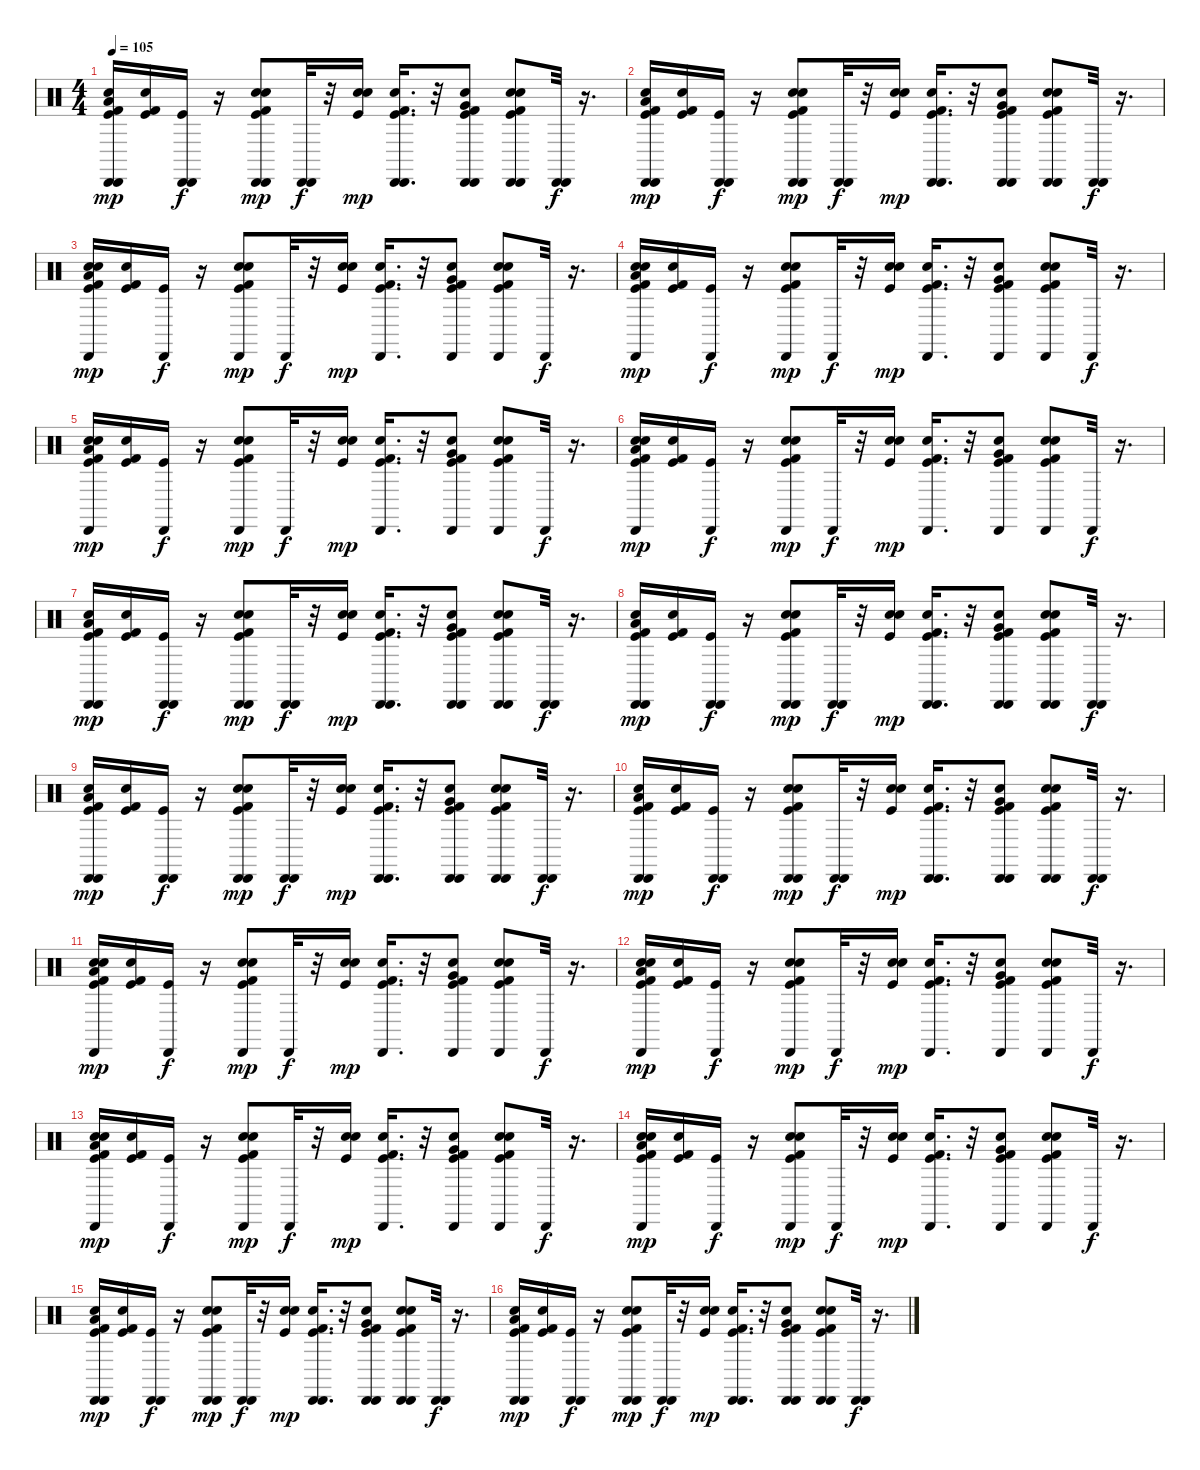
\track "" {instrument percussion}
\staff {score}
\articulation defaults
\ts (4 4)
\tempo 105
\clef neutral
\ks c
("Cabasa (hit)" "Kick (hit) 2" "Kick (hit)" "Cabasa (hit)" "Electric Snare (hit)" "Low Floor Tom (hit)").16{dy mp} ("Snare (hit) 2" "Kick (hit)" "Kick (hit) 2").16 ("Cabasa (hit)" "Cabasa (hit)" "Kick (hit)").16{dy f} r.16 ("Hand Clap (hit)" "Cabasa (hit)" "Cabasa (hit)" "Kick (hit) 2" "Kick (hit)" "Snare (hit) 2").8{dy mp} ("Cabasa (hit)" "Cabasa (hit)").32{dy f} r.32 ("Kick (hit)" "Electric Snare (hit)" "Snare (hit) 2").16{dy mp} ("Kick (hit)" "Snare (hit) 2" "Kick (hit) 2" "Cabasa (hit)" "Cabasa (hit)").16{d} r.32 ("Kick (hit) 2" "Snare (hit) 2" "Kick (hit)" "Cabasa (hit)" "Very Low Tom (hit)" "Cabasa (hit)").8 ("Kick (hit)" "Snare (hit) 2" "Cabasa (hit)" "Kick (hit) 2" "Hand Clap (hit)" "Cabasa (hit)").8 ("Cabasa (hit)" "Cabasa (hit)").32{dy f} r.16{d} |
("Kick (hit) 2" "Cabasa (hit)" "Kick (hit)" "Cabasa (hit)" "Low Floor Tom (hit)" "Electric Snare (hit)").16{dy mp} ("Kick (hit) 2" "Kick (hit)" "Snare (hit) 2").16 ("Kick (hit)" "Cabasa (hit)" "Cabasa (hit)").16{dy f} r.16 ("Snare (hit) 2" "Cabasa (hit)" "Kick (hit)" "Hand Clap (hit)" "Cabasa (hit)" "Kick (hit) 2").8{dy mp} ("Cabasa (hit)" "Cabasa (hit)").32{dy f} r.32 ("Electric Snare (hit)" "Kick (hit)" "Snare (hit) 2").16{dy mp} ("Cabasa (hit)" "Cabasa (hit)" "Snare (hit) 2" "Kick (hit)" "Kick (hit) 2").16{d} r.32 ("Snare (hit) 2" "Kick (hit)" "Cabasa (hit)" "Kick (hit) 2" "Very Low Tom (hit)" "Cabasa (hit)").8 ("Hand Clap (hit)" "Kick (hit)" "Kick (hit) 2" "Snare (hit) 2" "Cabasa (hit)" "Cabasa (hit)").8 ("Cabasa (hit)" "Cabasa (hit)").32{dy f} r.16{d} |
("Kick (hit) 2" "Kick (hit)" "Cabasa (hit)" "Electric Snare (hit)" "Low Floor Tom (hit)" "Snare (hit) 2").16{dy mp} ("Kick (hit) 2" "Snare (hit) 2" "Kick (hit)").16 ("Kick (hit)" "Cabasa (hit)").16{dy f} r.16 ("Hand Clap (hit)" "Cabasa (hit)" "Kick (hit) 2" "Kick (hit)" "Snare (hit) 2").8{dy mp} "Cabasa (hit)".32{dy f} r.32 ("Kick (hit)" "Snare (hit) 2" "Electric Snare (hit)").16{dy mp} ("Snare (hit) 2" "Kick (hit)" "Cabasa (hit)" "Kick (hit) 2").16{d} r.32 ("Kick (hit)" "Snare (hit) 2" "Kick (hit) 2" "Cabasa (hit)" "Very Low Tom (hit)").8 ("Snare (hit) 2" "Kick (hit)" "Hand Clap (hit)" "Cabasa (hit)" "Kick (hit) 2").8 "Cabasa (hit)".32{dy f} r.16{d} |
("Electric Snare (hit)" "Kick (hit) 2" "Kick (hit)" "Cabasa (hit)" "Low Floor Tom (hit)" "Snare (hit) 2").16{dy mp} ("Kick (hit) 2" "Kick (hit)" "Snare (hit) 2").16 ("Kick (hit)" "Cabasa (hit)").16{dy f} r.16 ("Hand Clap (hit)" "Snare (hit) 2" "Kick (hit)" "Cabasa (hit)" "Kick (hit) 2").8{dy mp} "Cabasa (hit)".32{dy f} r.32 ("Electric Snare (hit)" "Kick (hit)" "Snare (hit) 2").16{dy mp} ("Snare (hit) 2" "Kick (hit)" "Kick (hit) 2" "Cabasa (hit)").16{d} r.32 ("Very Low Tom (hit)" "Snare (hit) 2" "Kick (hit)" "Cabasa (hit)" "Kick (hit) 2").8 ("Hand Clap (hit)" "Kick (hit)" "Cabasa (hit)" "Snare (hit) 2" "Kick (hit) 2").8 "Cabasa (hit)".32{dy f} r.16{d} |
("Kick (hit) 2" "Kick (hit)" "Cabasa (hit)" "Electric Snare (hit)" "Low Floor Tom (hit)" "Snare (hit) 2").16{dy mp} ("Kick (hit) 2" "Snare (hit) 2" "Kick (hit)").16 ("Kick (hit)" "Cabasa (hit)").16{dy f} r.16 ("Hand Clap (hit)" "Cabasa (hit)" "Kick (hit) 2" "Kick (hit)" "Snare (hit) 2").8{dy mp} "Cabasa (hit)".32{dy f} r.32 ("Kick (hit)" "Snare (hit) 2" "Electric Snare (hit)").16{dy mp} ("Snare (hit) 2" "Kick (hit)" "Cabasa (hit)" "Kick (hit) 2").16{d} r.32 ("Kick (hit)" "Snare (hit) 2" "Kick (hit) 2" "Cabasa (hit)" "Very Low Tom (hit)").8 ("Snare (hit) 2" "Kick (hit)" "Hand Clap (hit)" "Cabasa (hit)" "Kick (hit) 2").8 "Cabasa (hit)".32{dy f} r.16{d} |
("Electric Snare (hit)" "Kick (hit) 2" "Kick (hit)" "Cabasa (hit)" "Low Floor Tom (hit)" "Snare (hit) 2").16{dy mp} ("Kick (hit) 2" "Kick (hit)" "Snare (hit) 2").16 ("Kick (hit)" "Cabasa (hit)").16{dy f} r.16 ("Hand Clap (hit)" "Snare (hit) 2" "Kick (hit)" "Cabasa (hit)" "Kick (hit) 2").8{dy mp} "Cabasa (hit)".32{dy f} r.32 ("Electric Snare (hit)" "Kick (hit)" "Snare (hit) 2").16{dy mp} ("Snare (hit) 2" "Kick (hit)" "Kick (hit) 2" "Cabasa (hit)").16{d} r.32 ("Very Low Tom (hit)" "Snare (hit) 2" "Kick (hit)" "Cabasa (hit)" "Kick (hit) 2").8 ("Hand Clap (hit)" "Kick (hit)" "Cabasa (hit)" "Snare (hit) 2" "Kick (hit) 2").8 "Cabasa (hit)".32{dy f} r.16{d} |
("Kick (hit) 2" "Kick (hit)" "Cabasa (hit)" "Electric Snare (hit)" "Low Floor Tom (hit)" "Cabasa (hit)").16{dy mp} ("Kick (hit) 2" "Kick (hit)" "Snare (hit) 2").16 ("Cabasa (hit)" "Kick (hit)" "Cabasa (hit)").16{dy f} r.16 ("Hand Clap (hit)" "Cabasa (hit)" "Snare (hit) 2" "Cabasa (hit)" "Kick (hit)" "Kick (hit) 2").8{dy mp} ("Cabasa (hit)" "Cabasa (hit)").32{dy f} r.32 ("Kick (hit)" "Snare (hit) 2" "Electric Snare (hit)").16{dy mp} ("Snare (hit) 2" "Kick (hit)" "Cabasa (hit)" "Cabasa (hit)" "Kick (hit) 2").16{d} r.32 ("Cabasa (hit)" "Very Low Tom (hit)" "Kick (hit)" "Snare (hit) 2" "Cabasa (hit)" "Kick (hit) 2").8 ("Kick (hit)" "Cabasa (hit)" "Hand Clap (hit)" "Snare (hit) 2" "Cabasa (hit)" "Kick (hit) 2").8 ("Cabasa (hit)" "Cabasa (hit)").32{dy f} r.16{d} |
("Cabasa (hit)" "Electric Snare (hit)" "Kick (hit) 2" "Kick (hit)" "Cabasa (hit)" "Low Floor Tom (hit)").16{dy mp} ("Kick (hit) 2" "Snare (hit) 2" "Kick (hit)").16 ("Cabasa (hit)" "Kick (hit)" "Cabasa (hit)").16{dy f} r.16 ("Hand Clap (hit)" "Snare (hit) 2" "Kick (hit)" "Cabasa (hit)" "Kick (hit) 2" "Cabasa (hit)").8{dy mp} ("Cabasa (hit)" "Cabasa (hit)").32{dy f} r.32 ("Snare (hit) 2" "Electric Snare (hit)" "Kick (hit)").16{dy mp} ("Kick (hit)" "Snare (hit) 2" "Cabasa (hit)" "Kick (hit) 2" "Cabasa (hit)").16{d} r.32 ("Very Low Tom (hit)" "Snare (hit) 2" "Cabasa (hit)" "Kick (hit) 2" "Kick (hit)" "Cabasa (hit)").8 ("Hand Clap (hit)" "Kick (hit)" "Kick (hit) 2" "Snare (hit) 2" "Cabasa (hit)" "Cabasa (hit)").8 ("Cabasa (hit)" "Cabasa (hit)").32{dy f} r.16{d} |
("Cabasa (hit)" "Kick (hit) 2" "Kick (hit)" "Cabasa (hit)" "Electric Snare (hit)" "Low Floor Tom (hit)").16{dy mp} ("Snare (hit) 2" "Kick (hit)" "Kick (hit) 2").16 ("Cabasa (hit)" "Cabasa (hit)" "Kick (hit)").16{dy f} r.16 ("Hand Clap (hit)" "Cabasa (hit)" "Cabasa (hit)" "Kick (hit) 2" "Kick (hit)" "Snare (hit) 2").8{dy mp} ("Cabasa (hit)" "Cabasa (hit)").32{dy f} r.32 ("Kick (hit)" "Electric Snare (hit)" "Snare (hit) 2").16{dy mp} ("Kick (hit)" "Snare (hit) 2" "Kick (hit) 2" "Cabasa (hit)" "Cabasa (hit)").16{d} r.32 ("Kick (hit) 2" "Snare (hit) 2" "Kick (hit)" "Cabasa (hit)" "Very Low Tom (hit)" "Cabasa (hit)").8 ("Kick (hit)" "Snare (hit) 2" "Cabasa (hit)" "Kick (hit) 2" "Hand Clap (hit)" "Cabasa (hit)").8 ("Cabasa (hit)" "Cabasa (hit)").32{dy f} r.16{d} |
("Kick (hit) 2" "Cabasa (hit)" "Kick (hit)" "Cabasa (hit)" "Low Floor Tom (hit)" "Electric Snare (hit)").16{dy mp} ("Kick (hit) 2" "Kick (hit)" "Snare (hit) 2").16 ("Kick (hit)" "Cabasa (hit)" "Cabasa (hit)").16{dy f} r.16 ("Snare (hit) 2" "Cabasa (hit)" "Kick (hit)" "Hand Clap (hit)" "Cabasa (hit)" "Kick (hit) 2").8{dy mp} ("Cabasa (hit)" "Cabasa (hit)").32{dy f} r.32 ("Electric Snare (hit)" "Kick (hit)" "Snare (hit) 2").16{dy mp} ("Cabasa (hit)" "Cabasa (hit)" "Snare (hit) 2" "Kick (hit)" "Kick (hit) 2").16{d} r.32 ("Snare (hit) 2" "Kick (hit)" "Cabasa (hit)" "Kick (hit) 2" "Very Low Tom (hit)" "Cabasa (hit)").8 ("Hand Clap (hit)" "Kick (hit)" "Kick (hit) 2" "Snare (hit) 2" "Cabasa (hit)" "Cabasa (hit)").8 ("Cabasa (hit)" "Cabasa (hit)").32{dy f} r.16{d} |
("Kick (hit) 2" "Kick (hit)" "Cabasa (hit)" "Electric Snare (hit)" "Low Floor Tom (hit)" "Snare (hit) 2").16{dy mp} ("Kick (hit) 2" "Snare (hit) 2" "Kick (hit)").16 ("Kick (hit)" "Cabasa (hit)").16{dy f} r.16 ("Electric Snare (hit)" "Cabasa (hit)" "Kick (hit) 2" "Kick (hit)" "Snare (hit) 2").8{dy mp} "Cabasa (hit)".32{dy f} r.32 ("Kick (hit)" "Snare (hit) 2" "Electric Snare (hit)").16{dy mp} ("Snare (hit) 2" "Kick (hit)" "Cabasa (hit)" "Kick (hit) 2").16{d} r.32 ("Kick (hit)" "Snare (hit) 2" "Kick (hit) 2" "Cabasa (hit)" "Very Low Tom (hit)").8 ("Snare (hit) 2" "Kick (hit)" "Electric Snare (hit)" "Cabasa (hit)" "Kick (hit) 2").8 "Cabasa (hit)".32{dy f} r.16{d} |
("Electric Snare (hit)" "Kick (hit) 2" "Kick (hit)" "Cabasa (hit)" "Low Floor Tom (hit)" "Snare (hit) 2").16{dy mp} ("Kick (hit) 2" "Kick (hit)" "Snare (hit) 2").16 ("Kick (hit)" "Cabasa (hit)").16{dy f} r.16 ("Electric Snare (hit)" "Snare (hit) 2" "Kick (hit)" "Cabasa (hit)" "Kick (hit) 2").8{dy mp} "Cabasa (hit)".32{dy f} r.32 ("Electric Snare (hit)" "Kick (hit)" "Snare (hit) 2").16{dy mp} ("Snare (hit) 2" "Kick (hit)" "Kick (hit) 2" "Cabasa (hit)").16{d} r.32 ("Very Low Tom (hit)" "Snare (hit) 2" "Kick (hit)" "Cabasa (hit)" "Kick (hit) 2").8 ("Electric Snare (hit)" "Kick (hit)" "Cabasa (hit)" "Snare (hit) 2" "Kick (hit) 2").8 "Cabasa (hit)".32{dy f} r.16{d} |
("Kick (hit) 2" "Kick (hit)" "Cabasa (hit)" "Electric Snare (hit)" "Low Floor Tom (hit)" "Snare (hit) 2").16{dy mp} ("Kick (hit) 2" "Snare (hit) 2" "Kick (hit)").16 ("Kick (hit)" "Cabasa (hit)").16{dy f} r.16 ("Electric Snare (hit)" "Cabasa (hit)" "Kick (hit) 2" "Kick (hit)" "Snare (hit) 2").8{dy mp} "Cabasa (hit)".32{dy f} r.32 ("Kick (hit)" "Snare (hit) 2" "Electric Snare (hit)").16{dy mp} ("Snare (hit) 2" "Kick (hit)" "Cabasa (hit)" "Kick (hit) 2").16{d} r.32 ("Kick (hit)" "Snare (hit) 2" "Kick (hit) 2" "Cabasa (hit)" "Very Low Tom (hit)").8 ("Snare (hit) 2" "Kick (hit)" "Electric Snare (hit)" "Cabasa (hit)" "Kick (hit) 2").8 "Cabasa (hit)".32{dy f} r.16{d} |
("Electric Snare (hit)" "Kick (hit) 2" "Kick (hit)" "Cabasa (hit)" "Low Floor Tom (hit)" "Snare (hit) 2").16{dy mp} ("Kick (hit) 2" "Kick (hit)" "Snare (hit) 2").16 ("Kick (hit)" "Cabasa (hit)").16{dy f} r.16 ("Electric Snare (hit)" "Snare (hit) 2" "Kick (hit)" "Cabasa (hit)" "Kick (hit) 2").8{dy mp} "Cabasa (hit)".32{dy f} r.32 ("Electric Snare (hit)" "Kick (hit)" "Snare (hit) 2").16{dy mp} ("Snare (hit) 2" "Kick (hit)" "Kick (hit) 2" "Cabasa (hit)").16{d} r.32 ("Very Low Tom (hit)" "Snare (hit) 2" "Kick (hit)" "Cabasa (hit)" "Kick (hit) 2").8 ("Electric Snare (hit)" "Kick (hit)" "Cabasa (hit)" "Snare (hit) 2" "Kick (hit) 2").8 "Cabasa (hit)".32{dy f} r.16{d} |
("Kick (hit) 2" "Kick (hit)" "Cabasa (hit)" "Electric Snare (hit)" "Low Floor Tom (hit)" "Cabasa (hit)").16{dy mp} ("Kick (hit) 2" "Kick (hit)" "Snare (hit) 2").16 ("Cabasa (hit)" "Kick (hit)" "Cabasa (hit)").16{dy f} r.16 ("Electric Snare (hit)" "Cabasa (hit)" "Snare (hit) 2" "Cabasa (hit)" "Kick (hit)" "Kick (hit) 2").8{dy mp} ("Cabasa (hit)" "Cabasa (hit)").32{dy f} r.32 ("Kick (hit)" "Snare (hit) 2" "Electric Snare (hit)").16{dy mp} ("Snare (hit) 2" "Kick (hit)" "Cabasa (hit)" "Cabasa (hit)" "Kick (hit) 2").16{d} r.32 ("Cabasa (hit)" "Very Low Tom (hit)" "Kick (hit)" "Snare (hit) 2" "Cabasa (hit)" "Kick (hit) 2").8 ("Kick (hit)" "Cabasa (hit)" "Electric Snare (hit)" "Snare (hit) 2" "Cabasa (hit)" "Kick (hit) 2").8 ("Cabasa (hit)" "Cabasa (hit)").32{dy f} r.16{d} |
("Cabasa (hit)" "Electric Snare (hit)" "Kick (hit) 2" "Kick (hit)" "Cabasa (hit)" "Low Floor Tom (hit)").16{dy mp} ("Kick (hit) 2" "Snare (hit) 2" "Kick (hit)").16 ("Cabasa (hit)" "Kick (hit)" "Cabasa (hit)").16{dy f} r.16 ("Electric Snare (hit)" "Snare (hit) 2" "Kick (hit)" "Cabasa (hit)" "Kick (hit) 2" "Cabasa (hit)").8{dy mp} ("Cabasa (hit)" "Cabasa (hit)").32{dy f} r.32 ("Snare (hit) 2" "Electric Snare (hit)" "Kick (hit)").16{dy mp} ("Kick (hit)" "Snare (hit) 2" "Cabasa (hit)" "Kick (hit) 2" "Cabasa (hit)").16{d} r.32 ("Very Low Tom (hit)" "Snare (hit) 2" "Cabasa (hit)" "Kick (hit) 2" "Kick (hit)" "Cabasa (hit)").8 ("Electric Snare (hit)" "Kick (hit)" "Kick (hit) 2" "Snare (hit) 2" "Cabasa (hit)" "Cabasa (hit)").8 ("Cabasa (hit)" "Cabasa (hit)").32{dy f} r.16{d}
